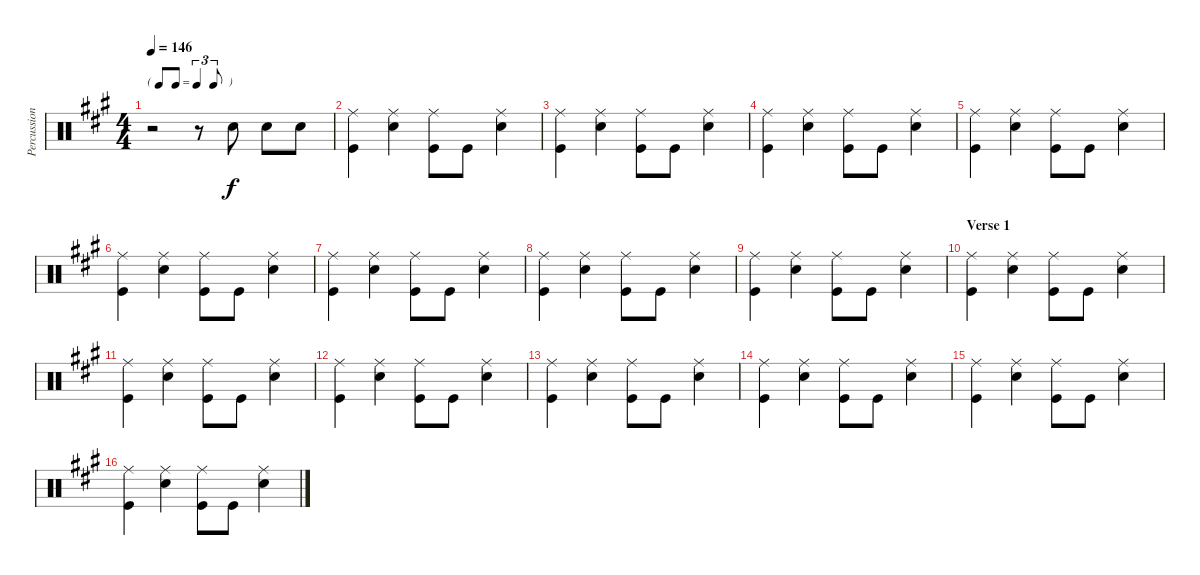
\track ("Percussion" "Percussion") {instrument percussion}
\staff {score}
\articulation defaults
\ts (4 4)
\tf triplet8th
\tempo 146
\clef neutral
\ks a
r.2{dy f} r.8 "Snare (hit) 2".8 "Snare (hit) 2".8 "Snare (hit) 2".8 |
("Ride (middle)" "Kick (hit)").4 ("Ride (middle)" "Snare (hit) 2").4 ("Ride (middle)" "Kick (hit)").8 "Kick (hit)".8 ("Ride (middle)" "Snare (hit) 2").4 |
("Ride (middle)" "Kick (hit)").4 ("Ride (middle)" "Snare (hit) 2").4 ("Ride (middle)" "Kick (hit)").8 "Kick (hit)".8 ("Ride (middle)" "Snare (hit) 2").4 |
("Ride (middle)" "Kick (hit)").4 ("Ride (middle)" "Snare (hit) 2").4 ("Ride (middle)" "Kick (hit)").8 "Kick (hit)".8 ("Ride (middle)" "Snare (hit) 2").4 |
("Ride (middle)" "Kick (hit)").4 ("Ride (middle)" "Snare (hit) 2").4 ("Ride (middle)" "Kick (hit)").8 "Kick (hit)".8 ("Ride (middle)" "Snare (hit) 2").4 |
("Ride (middle)" "Kick (hit)").4 ("Ride (middle)" "Snare (hit) 2").4 ("Ride (middle)" "Kick (hit)").8 "Kick (hit)".8 ("Ride (middle)" "Snare (hit) 2").4 |
("Ride (middle)" "Kick (hit)").4 ("Ride (middle)" "Snare (hit) 2").4 ("Ride (middle)" "Kick (hit)").8 "Kick (hit)".8 ("Ride (middle)" "Snare (hit) 2").4 |
("Ride (middle)" "Kick (hit)").4 ("Ride (middle)" "Snare (hit) 2").4 ("Ride (middle)" "Kick (hit)").8 "Kick (hit)".8 ("Ride (middle)" "Snare (hit) 2").4 |
("Ride (middle)" "Kick (hit)").4 ("Ride (middle)" "Snare (hit) 2").4 ("Ride (middle)" "Kick (hit)").8 "Kick (hit)".8 ("Ride (middle)" "Snare (hit) 2").4 |
\section ("" "Verse 1")
("Ride (middle)" "Kick (hit)").4 ("Ride (middle)" "Snare (hit) 2").4 ("Ride (middle)" "Kick (hit)").8 "Kick (hit)".8 ("Ride (middle)" "Snare (hit) 2").4 |
("Ride (middle)" "Kick (hit)").4 ("Ride (middle)" "Snare (hit) 2").4 ("Ride (middle)" "Kick (hit)").8 "Kick (hit)".8 ("Ride (middle)" "Snare (hit) 2").4 |
("Ride (middle)" "Kick (hit)").4 ("Ride (middle)" "Snare (hit) 2").4 ("Ride (middle)" "Kick (hit)").8 "Kick (hit)".8 ("Ride (middle)" "Snare (hit) 2").4 |
("Ride (middle)" "Kick (hit)").4 ("Ride (middle)" "Snare (hit) 2").4 ("Ride (middle)" "Kick (hit)").8 "Kick (hit)".8 ("Ride (middle)" "Snare (hit) 2").4 |
("Ride (middle)" "Kick (hit)").4 ("Ride (middle)" "Snare (hit) 2").4 ("Ride (middle)" "Kick (hit)").8 "Kick (hit)".8 ("Ride (middle)" "Snare (hit) 2").4 |
("Ride (middle)" "Kick (hit)").4 ("Ride (middle)" "Snare (hit) 2").4 ("Ride (middle)" "Kick (hit)").8 "Kick (hit)".8 ("Ride (middle)" "Snare (hit) 2").4 |
("Ride (middle)" "Kick (hit)").4 ("Ride (middle)" "Snare (hit) 2").4 ("Ride (middle)" "Kick (hit)").8 "Kick (hit)".8 ("Ride (middle)" "Snare (hit) 2").4
